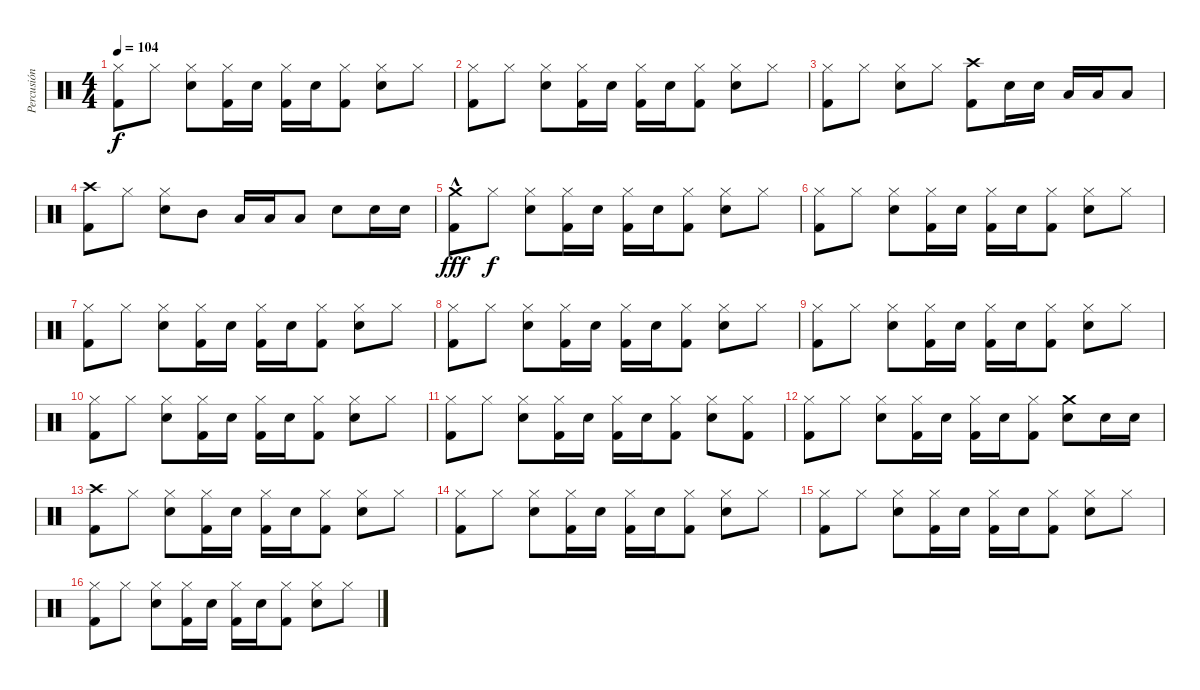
\track ("Percusión" "Percusión") {instrument percussion}
\staff {score}
\articulation defaults
\ts (4 4)
\tempo 104
\clef neutral
\ks c
("Hi-Hat (closed)" "Kick (hit) 2").8{dy f} "Hi-Hat (closed)".8 ("Hi-Hat (closed)" "Snare (hit) 2").8 ("Hi-Hat (closed)" "Kick (hit) 2").16 "Snare (hit) 2".16 ("Hi-Hat (closed)" "Kick (hit) 2").16 "Snare (hit) 2".16 ("Hi-Hat (closed)" "Kick (hit) 2").8 ("Hi-Hat (closed)" "Snare (hit) 2").8 "Hi-Hat (closed)".8 |
("Hi-Hat (closed)" "Kick (hit) 2").8 "Hi-Hat (closed)".8 ("Hi-Hat (closed)" "Snare (hit) 2").8 ("Hi-Hat (closed)" "Kick (hit) 2").16 "Snare (hit) 2".16 ("Hi-Hat (closed)" "Kick (hit) 2").16 "Snare (hit) 2".16 ("Hi-Hat (closed)" "Kick (hit) 2").8 ("Hi-Hat (closed)" "Snare (hit) 2").8 "Hi-Hat (closed)".8 |
("Hi-Hat (closed)" "Kick (hit) 2").8 "Hi-Hat (closed)".8 ("Hi-Hat (closed)" "Snare (hit) 2").8 "Hi-Hat (closed)".8 ("Crash high (hit)" "Kick (hit) 2").8 "Snare (hit) 2".16 "Snare (hit) 2".16 "Low Tom (hit)".16 "Low Tom (hit)".16 "Low Floor Tom (hit)".8 |
("Crash high (hit)" "Kick (hit) 2").8 "Hi-Hat (closed)".8 ("Hi-Hat (closed)" "Snare (hit) 2").8 "Mid Tom (hit)".8 "Low Tom (hit)".16 "Low Tom (hit)".16 "Low Floor Tom (hit)".8 "Snare (hit) 2".8 "Snare (hit) 2".16 "Snare (hit) 2".16 |
("Crash medium (hit)"{hac} "Kick (hit) 2").8{dy fff} "Hi-Hat (closed)".8{dy f} ("Hi-Hat (closed)" "Snare (hit) 2").8 ("Hi-Hat (closed)" "Kick (hit) 2").16 "Snare (hit) 2".16 ("Hi-Hat (closed)" "Kick (hit) 2").16 "Snare (hit) 2".16 ("Hi-Hat (closed)" "Kick (hit) 2").8 ("Hi-Hat (closed)" "Snare (hit) 2").8 "Hi-Hat (closed)".8 |
("Hi-Hat (closed)" "Kick (hit) 2").8 "Hi-Hat (closed)".8 ("Hi-Hat (closed)" "Snare (hit) 2").8 ("Hi-Hat (closed)" "Kick (hit) 2").16 "Snare (hit) 2".16 ("Hi-Hat (closed)" "Kick (hit) 2").16 "Snare (hit) 2".16 ("Hi-Hat (closed)" "Kick (hit) 2").8 ("Hi-Hat (closed)" "Snare (hit) 2").8 "Hi-Hat (closed)".8 |
("Hi-Hat (closed)" "Kick (hit) 2").8 "Hi-Hat (closed)".8 ("Hi-Hat (closed)" "Snare (hit) 2").8 ("Hi-Hat (closed)" "Kick (hit) 2").16 "Snare (hit) 2".16 ("Hi-Hat (closed)" "Kick (hit) 2").16 "Snare (hit) 2".16 ("Hi-Hat (closed)" "Kick (hit) 2").8 ("Hi-Hat (closed)" "Snare (hit) 2").8 "Hi-Hat (closed)".8 |
("Hi-Hat (closed)" "Kick (hit) 2").8 "Hi-Hat (closed)".8 ("Hi-Hat (closed)" "Snare (hit) 2").8 ("Hi-Hat (closed)" "Kick (hit) 2").16 "Snare (hit) 2".16 ("Hi-Hat (closed)" "Kick (hit) 2").16 "Snare (hit) 2".16 ("Hi-Hat (closed)" "Kick (hit) 2").8 ("Hi-Hat (closed)" "Snare (hit) 2").8 "Hi-Hat (closed)".8 |
("Hi-Hat (closed)" "Kick (hit) 2").8 "Hi-Hat (closed)".8 ("Hi-Hat (closed)" "Snare (hit) 2").8 ("Hi-Hat (closed)" "Kick (hit) 2").16 "Snare (hit) 2".16 ("Hi-Hat (closed)" "Kick (hit) 2").16 "Snare (hit) 2".16 ("Hi-Hat (closed)" "Kick (hit) 2").8 ("Hi-Hat (closed)" "Snare (hit) 2").8 "Hi-Hat (closed)".8 |
("Hi-Hat (closed)" "Kick (hit) 2").8 "Hi-Hat (closed)".8 ("Hi-Hat (closed)" "Snare (hit) 2").8 ("Hi-Hat (closed)" "Kick (hit) 2").16 "Snare (hit) 2".16 ("Hi-Hat (closed)" "Kick (hit) 2").16 "Snare (hit) 2".16 ("Hi-Hat (closed)" "Kick (hit) 2").8 ("Hi-Hat (closed)" "Snare (hit) 2").8 "Hi-Hat (closed)".8 |
("Hi-Hat (closed)" "Kick (hit) 2").8 "Hi-Hat (closed)".8 ("Hi-Hat (closed)" "Snare (hit) 2").8 ("Hi-Hat (closed)" "Kick (hit) 2").16 "Snare (hit) 2".16 ("Hi-Hat (closed)" "Kick (hit) 2").16 "Snare (hit) 2".16 ("Hi-Hat (closed)" "Kick (hit) 2").8 ("Hi-Hat (closed)" "Snare (hit) 2").8 ("Hi-Hat (closed)" "Kick (hit) 2").8 |
("Hi-Hat (closed)" "Kick (hit) 2").8 "Hi-Hat (closed)".8 ("Hi-Hat (closed)" "Snare (hit) 2").8 ("Hi-Hat (closed)" "Kick (hit) 2").16 "Snare (hit) 2".16 ("Hi-Hat (closed)" "Kick (hit) 2").16 "Snare (hit) 2".16 ("Hi-Hat (closed)" "Kick (hit) 2").8 ("Crash medium (hit)" "Snare (hit) 2").8 "Snare (hit) 2".16 "Snare (hit) 2".16 |
("Crash high (hit)" "Kick (hit) 2").8 "Hi-Hat (closed)".8 ("Hi-Hat (closed)" "Snare (hit) 2").8 ("Hi-Hat (closed)" "Kick (hit) 2").16 "Snare (hit) 2".16 ("Hi-Hat (closed)" "Kick (hit) 2").16 "Snare (hit) 2".16 ("Hi-Hat (closed)" "Kick (hit) 2").8 ("Hi-Hat (closed)" "Snare (hit) 2").8 "Hi-Hat (closed)".8 |
("Hi-Hat (closed)" "Kick (hit) 2").8 "Hi-Hat (closed)".8 ("Hi-Hat (closed)" "Snare (hit) 2").8 ("Hi-Hat (closed)" "Kick (hit) 2").16 "Snare (hit) 2".16 ("Hi-Hat (closed)" "Kick (hit) 2").16 "Snare (hit) 2".16 ("Hi-Hat (closed)" "Kick (hit) 2").8 ("Hi-Hat (closed)" "Snare (hit) 2").8 "Hi-Hat (closed)".8 |
("Hi-Hat (closed)" "Kick (hit) 2").8 "Hi-Hat (closed)".8 ("Hi-Hat (closed)" "Snare (hit) 2").8 ("Hi-Hat (closed)" "Kick (hit) 2").16 "Snare (hit) 2".16 ("Hi-Hat (closed)" "Kick (hit) 2").16 "Snare (hit) 2".16 ("Hi-Hat (closed)" "Kick (hit) 2").8 ("Hi-Hat (closed)" "Snare (hit) 2").8 "Hi-Hat (closed)".8 |
("Hi-Hat (closed)" "Kick (hit) 2").8 "Hi-Hat (closed)".8 ("Hi-Hat (closed)" "Snare (hit) 2").8 ("Hi-Hat (closed)" "Kick (hit) 2").16 "Snare (hit) 2".16 ("Hi-Hat (closed)" "Kick (hit) 2").16 "Snare (hit) 2".16 ("Hi-Hat (closed)" "Kick (hit) 2").8 ("Hi-Hat (closed)" "Snare (hit) 2").8 "Hi-Hat (closed)".8
